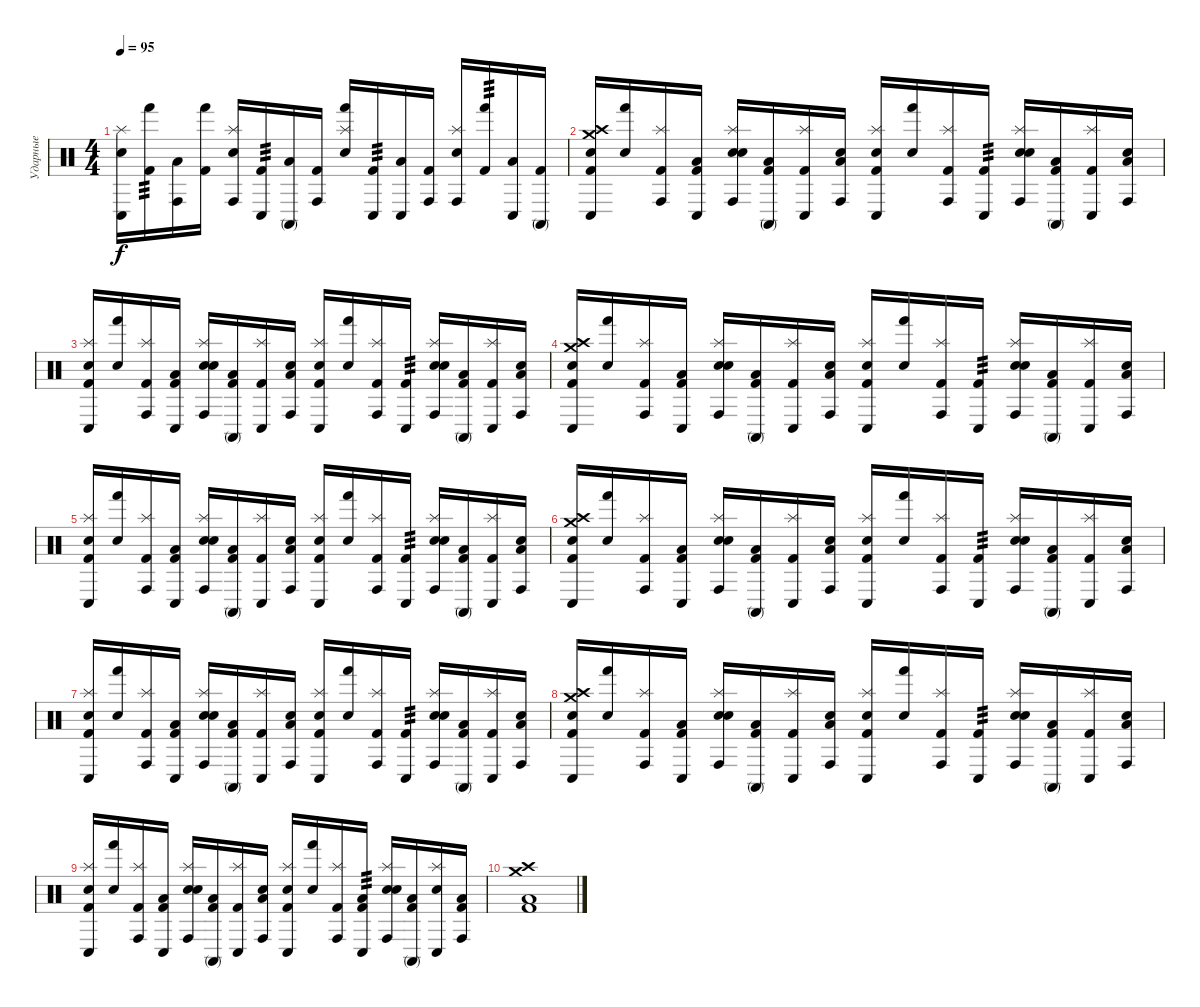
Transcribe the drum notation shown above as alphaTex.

\track ("Ударные" "Ударные") {instrument percussion}
\staff
\articulation defaults
\ts (4 4)
\tempo 95
\clef neutral
\ks c
("Splash (hit)" "Conga low (hit)" "Electric Snare (hit)").16{dy f} ("Hand (hit)" "Kick (hit) 2").16{tp 3} ("Conga high (hit)" "Low Floor Tom (hit)").16 ("Hand (hit)" "Kick (hit) 2").16 ("Splash (hit)" "Conga high (hit)" "Electric Snare (hit)").16 ("Conga low (hit)" "Kick (hit) 2").16{tp 3} ("Conga high (mute)" "Low Floor Tom (hit)").16 ("Conga high (hit)" "Kick (hit) 2").16 ("Splash (hit)" "Hand (hit)" "Electric Snare (hit)").16 ("Conga low (hit)" "Kick (hit) 2").16{tp 3} ("Conga low (hit)" "Low Floor Tom (hit)").16 ("Conga high (hit)" "Kick (hit) 2").16 ("Splash (hit)" "Conga high (hit)" "Electric Snare (hit)").16 ("Hand (hit)" "Kick (hit) 2").16{tp 3} ("Conga low (hit)" "Low Floor Tom (hit)").16 ("Conga high (mute)" "Kick (hit) 2").16 |
("Crash medium (hit)" "Crash high (hit)" "Conga low (hit)" "Snare (hit) 2" "Kick (hit) 2").16 ("Hand (hit)" "Electric Snare (hit)").16 ("Splash (hit)" "Conga high (hit)" "Kick (hit) 2").16 ("Conga low (hit)" "Low Floor Tom (hit)" "Kick (hit) 2").16 ("Splash (hit)" "Conga high (hit)" "Snare (hit) 2" "Electric Snare (hit)").16 ("Conga high (mute)" "Low Floor Tom (hit)" "Kick (hit) 2").16 ("Splash (hit)" "Conga low (hit)" "Kick (hit) 2").16 ("Conga high (hit)" "Low Floor Tom (hit)" "Electric Snare (hit)").16 ("Splash (hit)" "Conga low (hit)" "Snare (hit) 2" "Kick (hit) 2").16 ("Hand (hit)" "Electric Snare (hit)").16 ("Splash (hit)" "Conga high (hit)" "Kick (hit) 2").16 ("Conga low (hit)" "Kick (hit) 2").16{tp 3} ("Splash (hit)" "Conga high (hit)" "Snare (hit) 2" "Electric Snare (hit)").16 ("Conga high (mute)" "Low Floor Tom (hit)" "Kick (hit) 2").16 ("Splash (hit)" "Conga low (hit)" "Kick (hit) 2").16 ("Conga high (hit)" "Low Floor Tom (hit)" "Electric Snare (hit)").16 |
("Splash (hit)" "Conga low (hit)" "Snare (hit) 2" "Kick (hit) 2").16 ("Hand (hit)" "Electric Snare (hit)").16 ("Splash (hit)" "Conga high (hit)" "Kick (hit) 2").16 ("Conga low (hit)" "Low Floor Tom (hit)" "Kick (hit) 2").16 ("Splash (hit)" "Conga high (hit)" "Snare (hit) 2" "Electric Snare (hit)").16 ("Conga high (mute)" "Low Floor Tom (hit)" "Kick (hit) 2").16 ("Splash (hit)" "Conga low (hit)" "Kick (hit) 2").16 ("Conga high (hit)" "Low Floor Tom (hit)" "Electric Snare (hit)").16 ("Splash (hit)" "Conga low (hit)" "Snare (hit) 2" "Kick (hit) 2").16 ("Hand (hit)" "Electric Snare (hit)").16 ("Splash (hit)" "Conga high (hit)" "Kick (hit) 2").16 ("Conga low (hit)" "Kick (hit) 2").16{tp 3} ("Splash (hit)" "Conga high (hit)" "Snare (hit) 2" "Electric Snare (hit)").16 ("Conga high (mute)" "Low Floor Tom (hit)" "Kick (hit) 2").16 ("Splash (hit)" "Conga low (hit)" "Kick (hit) 2").16 ("Conga high (hit)" "Low Floor Tom (hit)" "Electric Snare (hit)").16 |
("Crash medium (hit)" "Crash high (hit)" "Conga low (hit)" "Snare (hit) 2" "Kick (hit) 2").16 ("Hand (hit)" "Electric Snare (hit)").16 ("Splash (hit)" "Conga high (hit)" "Kick (hit) 2").16 ("Conga low (hit)" "Low Floor Tom (hit)" "Kick (hit) 2").16 ("Splash (hit)" "Conga high (hit)" "Snare (hit) 2" "Electric Snare (hit)").16 ("Conga high (mute)" "Low Floor Tom (hit)" "Kick (hit) 2").16 ("Splash (hit)" "Conga low (hit)" "Kick (hit) 2").16 ("Conga high (hit)" "Low Floor Tom (hit)" "Electric Snare (hit)").16 ("Splash (hit)" "Conga low (hit)" "Snare (hit) 2" "Kick (hit) 2").16 ("Hand (hit)" "Electric Snare (hit)").16 ("Splash (hit)" "Conga high (hit)" "Kick (hit) 2").16 ("Conga low (hit)" "Kick (hit) 2").16{tp 3} ("Splash (hit)" "Conga high (hit)" "Snare (hit) 2" "Electric Snare (hit)").16 ("Conga high (mute)" "Low Floor Tom (hit)" "Kick (hit) 2").16 ("Splash (hit)" "Conga low (hit)" "Kick (hit) 2").16 ("Conga high (hit)" "Low Floor Tom (hit)" "Electric Snare (hit)").16 |
("Splash (hit)" "Conga low (hit)" "Snare (hit) 2" "Kick (hit) 2").16 ("Hand (hit)" "Electric Snare (hit)").16 ("Splash (hit)" "Conga high (hit)" "Kick (hit) 2").16 ("Conga low (hit)" "Low Floor Tom (hit)" "Kick (hit) 2").16 ("Splash (hit)" "Conga high (hit)" "Snare (hit) 2" "Electric Snare (hit)").16 ("Conga high (mute)" "Low Floor Tom (hit)" "Kick (hit) 2").16 ("Splash (hit)" "Conga low (hit)" "Kick (hit) 2").16 ("Conga high (hit)" "Low Floor Tom (hit)" "Electric Snare (hit)").16 ("Splash (hit)" "Conga low (hit)" "Snare (hit) 2" "Kick (hit) 2").16 ("Hand (hit)" "Electric Snare (hit)").16 ("Splash (hit)" "Conga high (hit)" "Kick (hit) 2").16 ("Conga low (hit)" "Kick (hit) 2").16{tp 3} ("Splash (hit)" "Conga high (hit)" "Snare (hit) 2" "Electric Snare (hit)").16 ("Conga high (mute)" "Low Floor Tom (hit)" "Kick (hit) 2").16 ("Splash (hit)" "Conga low (hit)" "Kick (hit) 2").16 ("Conga high (hit)" "Low Floor Tom (hit)" "Electric Snare (hit)").16 |
("Crash medium (hit)" "Crash high (hit)" "Conga low (hit)" "Snare (hit) 2" "Kick (hit) 2").16 ("Hand (hit)" "Electric Snare (hit)").16 ("Splash (hit)" "Conga high (hit)" "Kick (hit) 2").16 ("Conga low (hit)" "Low Floor Tom (hit)" "Kick (hit) 2").16 ("Splash (hit)" "Conga high (hit)" "Snare (hit) 2" "Electric Snare (hit)").16 ("Conga high (mute)" "Low Floor Tom (hit)" "Kick (hit) 2").16 ("Splash (hit)" "Conga low (hit)" "Kick (hit) 2").16 ("Conga high (hit)" "Low Floor Tom (hit)" "Electric Snare (hit)").16 ("Splash (hit)" "Conga low (hit)" "Snare (hit) 2" "Kick (hit) 2").16 ("Hand (hit)" "Electric Snare (hit)").16 ("Splash (hit)" "Conga high (hit)" "Kick (hit) 2").16 ("Conga low (hit)" "Kick (hit) 2").16{tp 3} ("Splash (hit)" "Conga high (hit)" "Snare (hit) 2" "Electric Snare (hit)").16 ("Conga high (mute)" "Low Floor Tom (hit)" "Kick (hit) 2").16 ("Splash (hit)" "Conga low (hit)" "Kick (hit) 2").16 ("Conga high (hit)" "Low Floor Tom (hit)" "Electric Snare (hit)").16 |
("Splash (hit)" "Conga low (hit)" "Snare (hit) 2" "Kick (hit) 2").16 ("Hand (hit)" "Electric Snare (hit)").16 ("Splash (hit)" "Conga high (hit)" "Kick (hit) 2").16 ("Conga low (hit)" "Low Floor Tom (hit)" "Kick (hit) 2").16 ("Splash (hit)" "Conga high (hit)" "Snare (hit) 2" "Electric Snare (hit)").16 ("Conga high (mute)" "Low Floor Tom (hit)" "Kick (hit) 2").16 ("Splash (hit)" "Conga low (hit)" "Kick (hit) 2").16 ("Conga high (hit)" "Low Floor Tom (hit)" "Electric Snare (hit)").16 ("Splash (hit)" "Conga low (hit)" "Snare (hit) 2" "Kick (hit) 2").16 ("Hand (hit)" "Electric Snare (hit)").16 ("Splash (hit)" "Conga high (hit)" "Kick (hit) 2").16 ("Conga low (hit)" "Kick (hit) 2").16{tp 3} ("Splash (hit)" "Conga high (hit)" "Snare (hit) 2" "Electric Snare (hit)").16 ("Conga high (mute)" "Low Floor Tom (hit)" "Kick (hit) 2").16 ("Splash (hit)" "Conga low (hit)" "Kick (hit) 2").16 ("Conga high (hit)" "Low Floor Tom (hit)" "Electric Snare (hit)").16 |
("Crash medium (hit)" "Crash high (hit)" "Conga low (hit)" "Snare (hit) 2" "Kick (hit) 2").16 ("Hand (hit)" "Electric Snare (hit)").16 ("Splash (hit)" "Conga high (hit)" "Kick (hit) 2").16 ("Conga low (hit)" "Low Floor Tom (hit)" "Kick (hit) 2").16 ("Splash (hit)" "Conga high (hit)" "Snare (hit) 2" "Electric Snare (hit)").16 ("Conga high (mute)" "Low Floor Tom (hit)" "Kick (hit) 2").16 ("Splash (hit)" "Conga low (hit)" "Kick (hit) 2").16 ("Conga high (hit)" "Low Floor Tom (hit)" "Electric Snare (hit)").16 ("Splash (hit)" "Conga low (hit)" "Snare (hit) 2" "Kick (hit) 2").16 ("Hand (hit)" "Electric Snare (hit)").16 ("Splash (hit)" "Conga high (hit)" "Kick (hit) 2").16 ("Conga low (hit)" "Kick (hit) 2").16{tp 3} ("Splash (hit)" "Conga high (hit)" "Snare (hit) 2" "Electric Snare (hit)").16 ("Conga high (mute)" "Low Floor Tom (hit)" "Kick (hit) 2").16 ("Splash (hit)" "Conga low (hit)" "Kick (hit) 2").16 ("Conga high (hit)" "Low Floor Tom (hit)" "Electric Snare (hit)").16 |
("Splash (hit)" "Conga low (hit)" "Snare (hit) 2" "Kick (hit) 2").16 ("Hand (hit)" "Electric Snare (hit)").16 ("Splash (hit)" "Conga high (hit)" "Kick (hit) 2").16 ("Conga low (hit)" "Low Floor Tom (hit)" "Kick (hit) 2").16 ("Splash (hit)" "Conga high (hit)" "Snare (hit) 2" "Electric Snare (hit)").16 ("Conga high (mute)" "Low Floor Tom (hit)" "Kick (hit) 2").16 ("Splash (hit)" "Conga low (hit)" "Kick (hit) 2").16 ("Conga high (hit)" "Low Floor Tom (hit)" "Electric Snare (hit)").16 ("Splash (hit)" "Conga low (hit)" "Snare (hit) 2" "Kick (hit) 2").16 ("Hand (hit)" "Electric Snare (hit)").16 ("Splash (hit)" "Conga high (hit)" "Kick (hit) 2").16 ("Conga low (hit)" "Low Floor Tom (hit)" "Kick (hit) 2").16{tp 3} ("Splash (hit)" "Conga high (hit)" "Snare (hit) 2" "Electric Snare (hit)").16 ("Conga high (mute)" "Low Floor Tom (hit)" "Kick (hit) 2").16 ("Splash (hit)" "Conga low (hit)" "Electric Snare (hit)").16 ("Conga high (hit)" "Low Floor Tom (hit)" "Kick (hit) 2").16 |
("Crash medium (hit)" "Crash high (hit)" "Low Floor Tom (hit)" "Kick (hit) 2").1
